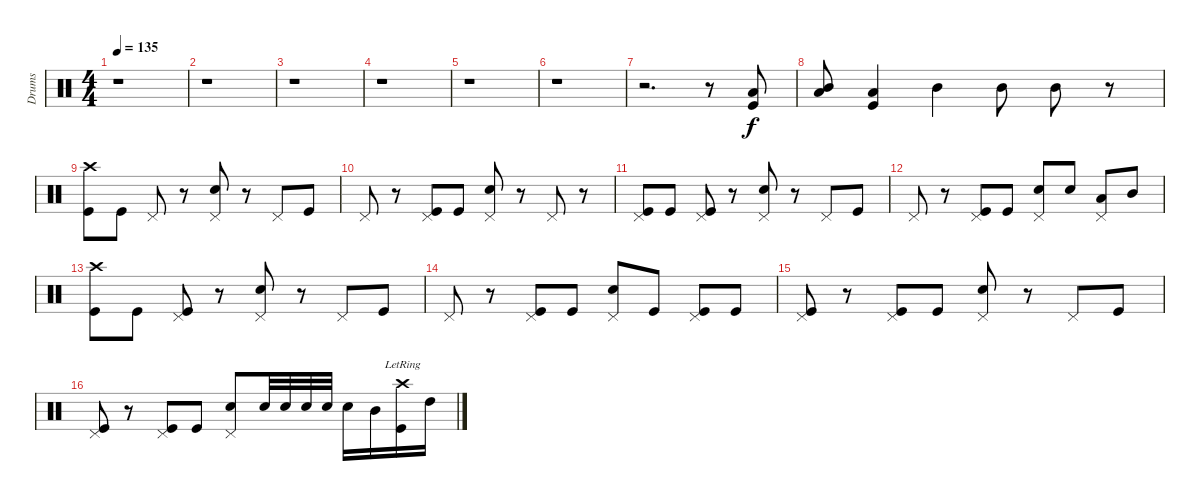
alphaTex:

\track ("Drums" "Drums") {instrument percussion}
\staff {score}
\articulation defaults
\ts (4 4)
\tempo 135
\clef neutral
\ks c
r.1{dy f} |
r.1 |
r.1 |
r.1 |
r.1 |
r.1 |
r.2{d} r.8 ("Low Tom (hit)" "Kick (hit)").8 |
("Low Tom (hit)" "Mid Tom (hit)").8{bd 240} ("Low Tom (hit)" "Kick (hit)").4 "Mid Tom (hit)".4 "Mid Tom (hit)".8 "Mid Tom (hit)".8 r.8 |
("Crash high (hit)" "Kick (hit)").8 "Kick (hit)".8 "Pedal Hi-Hat (hit)".8 r.8 ("Pedal Hi-Hat (hit)" "Snare (hit) 2").8 r.8 "Pedal Hi-Hat (hit)".8 "Kick (hit)".8 |
"Pedal Hi-Hat (hit)".8 r.8 ("Pedal Hi-Hat (hit)" "Kick (hit)").8 "Kick (hit)".8 ("Pedal Hi-Hat (hit)" "Snare (hit) 2").8 r.8 "Pedal Hi-Hat (hit)".8 r.8 |
("Pedal Hi-Hat (hit)" "Kick (hit)").8 "Kick (hit)".8 ("Pedal Hi-Hat (hit)" "Kick (hit)").8 r.8 ("Pedal Hi-Hat (hit)" "Snare (hit) 2").8 r.8 "Pedal Hi-Hat (hit)".8 "Kick (hit)".8 |
"Pedal Hi-Hat (hit)".8 r.8 ("Pedal Hi-Hat (hit)" "Kick (hit)").8 "Kick (hit)".8 ("Pedal Hi-Hat (hit)" "Snare (hit) 2").8 "Snare (hit) 2".8 ("Low Tom (hit)" "Pedal Hi-Hat (hit)").8 "Mid Tom (hit)".8 |
("Crash high (hit)" "Kick (hit)").8 "Kick (hit)".8 ("Pedal Hi-Hat (hit)" "Kick (hit)").8 r.8 ("Pedal Hi-Hat (hit)" "Snare (hit) 2").8 r.8 "Pedal Hi-Hat (hit)".8 "Kick (hit)".8 |
"Pedal Hi-Hat (hit)".8 r.8 ("Pedal Hi-Hat (hit)" "Kick (hit)").8 "Kick (hit)".8 ("Pedal Hi-Hat (hit)" "Snare (hit) 2").8 "Kick (hit)".8 ("Pedal Hi-Hat (hit)" "Kick (hit)").8 "Kick (hit)".8 |
("Pedal Hi-Hat (hit)" "Kick (hit)").8 r.8 ("Pedal Hi-Hat (hit)" "Kick (hit)").8 "Kick (hit)".8 ("Pedal Hi-Hat (hit)" "Snare (hit) 2").8 r.8 "Pedal Hi-Hat (hit)".8 "Kick (hit)".8 |
("Pedal Hi-Hat (hit)" "Kick (hit)").8 r.8 ("Pedal Hi-Hat (hit)" "Kick (hit)").8 "Kick (hit)".8 ("Pedal Hi-Hat (hit)" "Snare (hit) 2").8 "Snare (hit) 2".32 "Snare (hit) 2".32 "Snare (hit) 2".32 "Snare (hit) 2".32 "Snare (hit) 2".16 "Mid Tom (hit)".16 ("Crash high (hit)"{lr} "Kick (hit)").16 "High Tom (hit)".16
